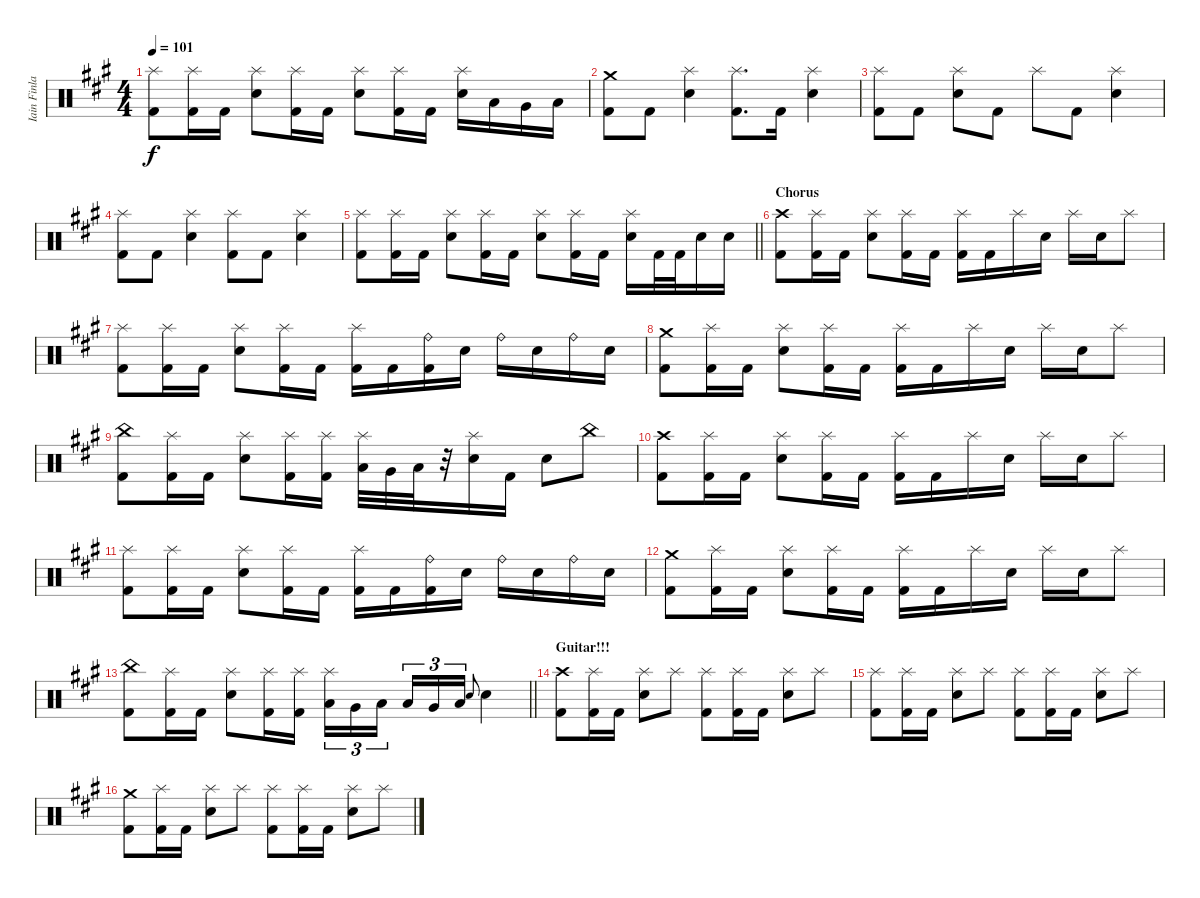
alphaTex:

\track ("Iain Finlay" "Iain Finla") {instrument percussion}
\staff {score}
\articulation defaults
\ts (4 4)
\tempo 101
\clef neutral
\ks f#minor
("Splash (hit)" "Kick (hit) 2").8{dy f} ("Splash (hit)" "Kick (hit) 2").16 "Kick (hit) 2".16 ("Splash (hit)" "Snare (hit) 2").8 ("Splash (hit)" "Kick (hit) 2").16 "Kick (hit) 2".16 ("Splash (hit)" "Snare (hit) 2").8 ("Splash (hit)" "Kick (hit) 2").16 "Kick (hit) 2".16 ("Splash (hit)" "Snare (hit) 2").16 "Low Tom (hit)".16 "Very Low Tom (hit)".16 "Low Floor Tom (hit)".16 |
("Crash medium (hit)" "Kick (hit) 2").8 "Kick (hit) 2".8 ("Splash (hit)" "Snare (hit) 2").4 ("Splash (hit)" "Kick (hit) 2").8{d} "Kick (hit) 2".16 ("Splash (hit)" "Snare (hit) 2").4 |
("Splash (hit)" "Kick (hit) 2").8 "Kick (hit) 2".8 ("Splash (hit)" "Snare (hit) 2").8 "Kick (hit) 2".8 "Splash (hit)".8 "Kick (hit) 2".8 ("Splash (hit)" "Snare (hit) 2").4 |
("Splash (hit)" "Kick (hit) 2").8 "Kick (hit) 2".8 ("Splash (hit)" "Snare (hit) 2").4 ("Splash (hit)" "Kick (hit) 2").8 "Kick (hit) 2".8 ("Splash (hit)" "Snare (hit) 2").4 |
\barLineRight lightlight
("Splash (hit)" "Kick (hit) 2").8 ("Splash (hit)" "Kick (hit) 2").16 "Kick (hit) 2".16 ("Splash (hit)" "Snare (hit) 2").8 ("Splash (hit)" "Kick (hit) 2").16 "Kick (hit) 2".16 ("Splash (hit)" "Snare (hit) 2").8 ("Splash (hit)" "Kick (hit) 2").16 "Kick (hit) 2".16 ("Splash (hit)" "Snare (hit) 2").16 "Kick (hit) 2".32 "Kick (hit) 2".32 "Snare (hit) 2".16 "Snare (hit) 2".16 |
\section ("" "Chorus")
("Crash high (hit)" "Kick (hit) 2").8 ("Splash (hit)" "Kick (hit) 2").16 "Kick (hit) 2".16 ("Splash (hit)" "Snare (hit) 2").8 ("Splash (hit)" "Kick (hit) 2").16 "Kick (hit) 2".16 ("Splash (hit)" "Kick (hit) 2").16 "Kick (hit) 2".16 "Splash (hit)".16 "Snare (hit) 2".16 "Splash (hit)".16 "Snare (hit) 2".16 "Splash (hit)".8 |
("Splash (hit)" "Kick (hit) 2").8 ("Splash (hit)" "Kick (hit) 2").16 "Kick (hit) 2".16 ("Splash (hit)" "Snare (hit) 2").8 ("Splash (hit)" "Kick (hit) 2").16 "Kick (hit) 2".16 ("Splash (hit)" "Kick (hit) 2").16 "Kick (hit) 2".16 ("Ride (bell)" "Kick (hit) 2").16 "Snare (hit) 2".16 "Ride (bell)".16 "Snare (hit) 2".16 "Ride (bell)".16 "Snare (hit) 2".16 |
("Crash medium (hit)" "Kick (hit) 2").8 ("Splash (hit)" "Kick (hit) 2").16 "Kick (hit) 2".16 ("Splash (hit)" "Snare (hit) 2").8 ("Splash (hit)" "Kick (hit) 2").16 "Kick (hit) 2".16 ("Splash (hit)" "Kick (hit) 2").16 "Kick (hit) 2".16 "Splash (hit)".16 "Snare (hit) 2".16 "Splash (hit)".16 "Snare (hit) 2".16 "Splash (hit)".8 |
("China (hit)" "Kick (hit) 2").8 ("Splash (hit)" "Kick (hit) 2").16 "Kick (hit) 2".16 ("Splash (hit)" "Snare (hit) 2").8 ("Splash (hit)" "Kick (hit) 2").16 ("Splash (hit)" "Kick (hit) 2").16 ("Splash (hit)" "Low Tom (hit)").32 "Very Low Tom (hit)".32 "Low Floor Tom (hit)".32 r.32 ("Splash (hit)" "Snare (hit) 2").16 "Kick (hit) 2".16 "Snare (hit) 2".8 "China (hit)".8 |
("Crash high (hit)" "Kick (hit) 2").8 ("Splash (hit)" "Kick (hit) 2").16 "Kick (hit) 2".16 ("Splash (hit)" "Snare (hit) 2").8 ("Splash (hit)" "Kick (hit) 2").16 "Kick (hit) 2".16 ("Splash (hit)" "Kick (hit) 2").16 "Kick (hit) 2".16 "Splash (hit)".16 "Snare (hit) 2".16 "Splash (hit)".16 "Snare (hit) 2".16 "Splash (hit)".8 |
("Splash (hit)" "Kick (hit) 2").8 ("Splash (hit)" "Kick (hit) 2").16 "Kick (hit) 2".16 ("Splash (hit)" "Snare (hit) 2").8 ("Splash (hit)" "Kick (hit) 2").16 "Kick (hit) 2".16 ("Splash (hit)" "Kick (hit) 2").16 "Kick (hit) 2".16 ("Ride (bell)" "Kick (hit) 2").16 "Snare (hit) 2".16 "Ride (bell)".16 "Snare (hit) 2".16 "Ride (bell)".16 "Snare (hit) 2".16 |
("Crash medium (hit)" "Kick (hit) 2").8 ("Splash (hit)" "Kick (hit) 2").16 "Kick (hit) 2".16 ("Splash (hit)" "Snare (hit) 2").8 ("Splash (hit)" "Kick (hit) 2").16 "Kick (hit) 2".16 ("Splash (hit)" "Kick (hit) 2").16 "Kick (hit) 2".16 "Splash (hit)".16 "Snare (hit) 2".16 "Splash (hit)".16 "Snare (hit) 2".16 "Splash (hit)".8 |
\barLineRight lightlight
("China (hit)" "Kick (hit) 2").8 ("Splash (hit)" "Kick (hit) 2").16 "Kick (hit) 2".16 ("Splash (hit)" "Snare (hit) 2").8 ("Splash (hit)" "Kick (hit) 2").16 ("Splash (hit)" "Kick (hit) 2").16 ("Splash (hit)" "Low Tom (hit)").16{tu (3 2)} "Very Low Tom (hit)".16{tu (3 2)} "Low Floor Tom (hit)".16{tu (3 2) beam splitsecondary} "Low Floor Tom (hit)".16{tu (3 2)} "Very Low Tom (hit)".16{tu (3 2)} "Low Tom (hit)".16{tu (3 2)} "Snare (hit) 2".8{gr onbeat} "Snare (hit) 2".4 |
\section ("" "Guitar!!!")
("Crash high (hit)" "Kick (hit) 2").8 ("Splash (hit)" "Kick (hit) 2").16 "Kick (hit) 2".16 ("Splash (hit)" "Snare (hit) 2").8 "Splash (hit)".8 ("Splash (hit)" "Kick (hit) 2").8 ("Splash (hit)" "Kick (hit) 2").16 "Kick (hit) 2".16 ("Splash (hit)" "Snare (hit) 2").8 "Splash (hit)".8 |
("Splash (hit)" "Kick (hit) 2").8 ("Splash (hit)" "Kick (hit) 2").16 "Kick (hit) 2".16 ("Splash (hit)" "Snare (hit) 2").8 "Splash (hit)".8 ("Splash (hit)" "Kick (hit) 2").8 ("Splash (hit)" "Kick (hit) 2").16 "Kick (hit) 2".16 ("Splash (hit)" "Snare (hit) 2").8 "Splash (hit)".8 |
("Crash medium (hit)" "Kick (hit) 2").8 ("Splash (hit)" "Kick (hit) 2").16 "Kick (hit) 2".16 ("Splash (hit)" "Snare (hit) 2").8 "Splash (hit)".8 ("Splash (hit)" "Kick (hit) 2").8 ("Splash (hit)" "Kick (hit) 2").16 "Kick (hit) 2".16 ("Splash (hit)" "Snare (hit) 2").8 "Splash (hit)".8
